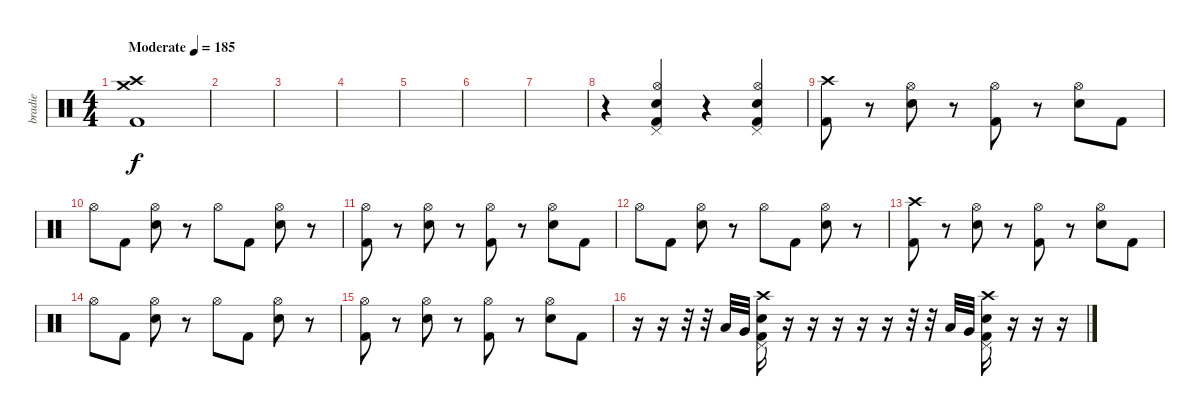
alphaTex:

\track ("bradie" "bradie") {instrument percussion}
\staff {score}
\articulation defaults
\ts (4 4)
\tempo (185 "Moderate")
\clef neutral
\ks c
("Crash high (hit)" "Crash medium (hit)" "Kick (hit) 2").1{dy f} |
|
|
|
|
|
|
r.4 ("Hi-Hat (open)" "Pedal Hi-Hat (hit)" "Electric Snare (hit)" "Kick (hit) 2").4 r.4 ("Hi-Hat (open)" "Pedal Hi-Hat (hit)" "Electric Snare (hit)" "Kick (hit) 2").4 |
("Crash high (hit)" "Kick (hit) 2").8 r.8 ("Hi-Hat (open)" "Electric Snare (hit)").8 r.8 ("Hi-Hat (open)" "Kick (hit) 2").8 r.8 ("Hi-Hat (open)" "Electric Snare (hit)").8 "Kick (hit) 2".8 |
"Hi-Hat (open)".8 "Kick (hit) 2".8 ("Hi-Hat (open)" "Electric Snare (hit)").8 r.8 "Hi-Hat (open)".8 "Kick (hit) 2".8 ("Hi-Hat (open)" "Electric Snare (hit)").8 r.8 |
("Hi-Hat (open)" "Kick (hit) 2").8 r.8 ("Hi-Hat (open)" "Electric Snare (hit)").8 r.8 ("Hi-Hat (open)" "Kick (hit) 2").8 r.8 ("Hi-Hat (open)" "Electric Snare (hit)").8 "Kick (hit) 2".8 |
"Hi-Hat (open)".8 "Kick (hit) 2".8 ("Hi-Hat (open)" "Electric Snare (hit)").8 r.8 "Hi-Hat (open)".8 "Kick (hit) 2".8 ("Hi-Hat (open)" "Electric Snare (hit)").8 r.8 |
("Crash high (hit)" "Kick (hit) 2").8 r.8 ("Hi-Hat (open)" "Electric Snare (hit)").8 r.8 ("Hi-Hat (open)" "Kick (hit) 2").8 r.8 ("Hi-Hat (open)" "Electric Snare (hit)").8 "Kick (hit) 2".8 |
"Hi-Hat (open)".8 "Kick (hit) 2".8 ("Hi-Hat (open)" "Electric Snare (hit)").8 r.8 "Hi-Hat (open)".8 "Kick (hit) 2".8 ("Hi-Hat (open)" "Electric Snare (hit)").8 r.8 |
("Hi-Hat (open)" "Kick (hit) 2").8 r.8 ("Hi-Hat (open)" "Electric Snare (hit)").8 r.8 ("Hi-Hat (open)" "Kick (hit) 2").8 r.8 ("Hi-Hat (open)" "Electric Snare (hit)").8 "Kick (hit) 2".8 |
r.16 r.16 r.32 r.32 "Low Tom (hit)".32 "Very Low Tom (hit)".32 ("Crash high (hit)" "Pedal Hi-Hat (hit)" "Electric Snare (hit)" "Kick (hit) 2").16 r.16 r.16 r.16 r.16 r.16 r.32 r.32 "Low Tom (hit)".32 "Very Low Tom (hit)".32 ("Crash high (hit)" "Pedal Hi-Hat (hit)" "Electric Snare (hit)" "Kick (hit) 2").16 r.16 r.16 r.16
